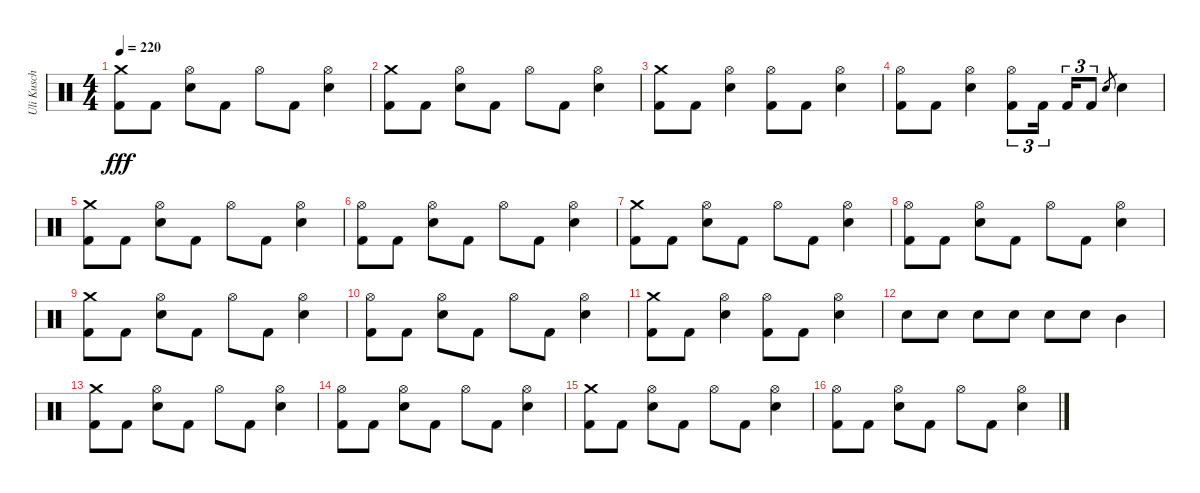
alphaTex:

\track ("Uli Kusch" "Uli Kusch") {instrument percussion}
\staff {score}
\articulation defaults
\ts (4 4)
\tempo 220
\clef neutral
\ks c
("Crash medium (hit)" "Kick (hit) 2").8{dy fff} "Kick (hit) 2".8 ("Hi-Hat (open)" "Snare (hit) 2").8 "Kick (hit) 2".8 "Hi-Hat (open)".8 "Kick (hit) 2".8 ("Hi-Hat (open)" "Snare (hit) 2").4 |
("Crash medium (hit)" "Kick (hit) 2").8 "Kick (hit) 2".8 ("Hi-Hat (open)" "Snare (hit) 2").8 "Kick (hit) 2".8 "Hi-Hat (open)".8 "Kick (hit) 2".8 ("Hi-Hat (open)" "Snare (hit) 2").4 |
("Crash medium (hit)" "Kick (hit) 2").8 "Kick (hit) 2".8 ("Hi-Hat (open)" "Snare (hit) 2").4 ("Hi-Hat (open)" "Kick (hit) 2").8 "Kick (hit) 2".8 ("Hi-Hat (open)" "Snare (hit) 2").4 |
("Hi-Hat (open)" "Kick (hit) 2").8 "Kick (hit) 2".8 ("Hi-Hat (open)" "Snare (hit) 2").4 ("Hi-Hat (open)" "Kick (hit) 2").8{tu (3 2)} "Kick (hit) 2".16{tu (3 2) beam splitsecondary} "Kick (hit) 2".16{tu (3 2)} "Kick (hit) 2".8{tu (3 2)} "Snare (hit) 2".8{gr} "Snare (hit) 2".4 |
("Crash medium (hit)" "Kick (hit) 2").8 "Kick (hit) 2".8 ("Hi-Hat (open)" "Snare (hit) 2").8 "Kick (hit) 2".8 "Hi-Hat (open)".8 "Kick (hit) 2".8 ("Hi-Hat (open)" "Snare (hit) 2").4 |
("Hi-Hat (open)" "Kick (hit) 2").8 "Kick (hit) 2".8 ("Hi-Hat (open)" "Snare (hit) 2").8 "Kick (hit) 2".8 "Hi-Hat (open)".8 "Kick (hit) 2".8 ("Hi-Hat (open)" "Snare (hit) 2").4 |
("Crash medium (hit)" "Kick (hit) 2").8 "Kick (hit) 2".8 ("Hi-Hat (open)" "Snare (hit) 2").8 "Kick (hit) 2".8 "Hi-Hat (open)".8 "Kick (hit) 2".8 ("Hi-Hat (open)" "Snare (hit) 2").4 |
("Hi-Hat (open)" "Kick (hit) 2").8 "Kick (hit) 2".8 ("Hi-Hat (open)" "Snare (hit) 2").8 "Kick (hit) 2".8 "Hi-Hat (open)".8 "Kick (hit) 2".8 ("Hi-Hat (open)" "Snare (hit) 2").4 |
("Crash medium (hit)" "Kick (hit) 2").8 "Kick (hit) 2".8 ("Hi-Hat (open)" "Snare (hit) 2").8 "Kick (hit) 2".8 "Hi-Hat (open)".8 "Kick (hit) 2".8 ("Hi-Hat (open)" "Snare (hit) 2").4 |
("Hi-Hat (open)" "Kick (hit) 2").8 "Kick (hit) 2".8 ("Hi-Hat (open)" "Snare (hit) 2").8 "Kick (hit) 2".8 "Hi-Hat (open)".8 "Kick (hit) 2".8 ("Hi-Hat (open)" "Snare (hit) 2").4 |
("Crash medium (hit)" "Kick (hit) 2").8 "Kick (hit) 2".8 ("Hi-Hat (open)" "Snare (hit) 2").4 ("Hi-Hat (open)" "Kick (hit) 2").8 "Kick (hit) 2".8 ("Hi-Hat (open)" "Snare (hit) 2").4 |
"Snare (hit) 2".8 "Snare (hit) 2".8 "Snare (hit) 2".8 "Snare (hit) 2".8 "Snare (hit) 2".8 "Snare (hit) 2".8 "Mid Tom (hit)".4 |
("Crash medium (hit)" "Kick (hit) 2").8 "Kick (hit) 2".8 ("Hi-Hat (open)" "Snare (hit) 2").8 "Kick (hit) 2".8 "Hi-Hat (open)".8 "Kick (hit) 2".8 ("Hi-Hat (open)" "Snare (hit) 2").4 |
("Hi-Hat (open)" "Kick (hit) 2").8 "Kick (hit) 2".8 ("Hi-Hat (open)" "Snare (hit) 2").8 "Kick (hit) 2".8 "Hi-Hat (open)".8 "Kick (hit) 2".8 ("Hi-Hat (open)" "Snare (hit) 2").4 |
("Crash medium (hit)" "Kick (hit) 2").8 "Kick (hit) 2".8 ("Hi-Hat (open)" "Snare (hit) 2").8 "Kick (hit) 2".8 "Hi-Hat (open)".8 "Kick (hit) 2".8 ("Hi-Hat (open)" "Snare (hit) 2").4 |
("Hi-Hat (open)" "Kick (hit) 2").8 "Kick (hit) 2".8 ("Hi-Hat (open)" "Snare (hit) 2").8 "Kick (hit) 2".8 "Hi-Hat (open)".8 "Kick (hit) 2".8 ("Hi-Hat (open)" "Snare (hit) 2").4
